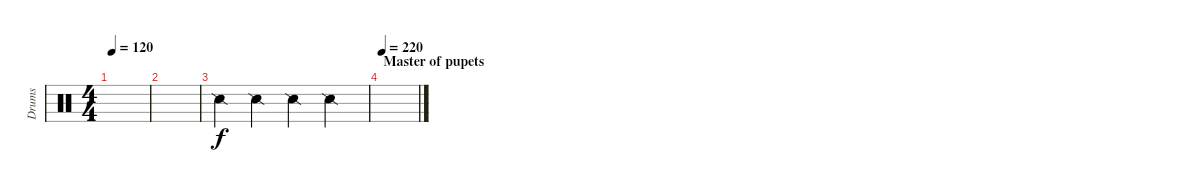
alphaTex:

\track ("Drums" "Drums") {instrument percussion}
\staff {score}
\articulation defaults
\ts (4 4)
\tempo 120
\clef neutral
\ks c
|
|
"Snare (side stick) 2".4 "Snare (side stick) 2".4 "Snare (side stick) 2".4 "Snare (side stick) 2".4 |
\section ("" "Master of pupets")
\tempo 220
